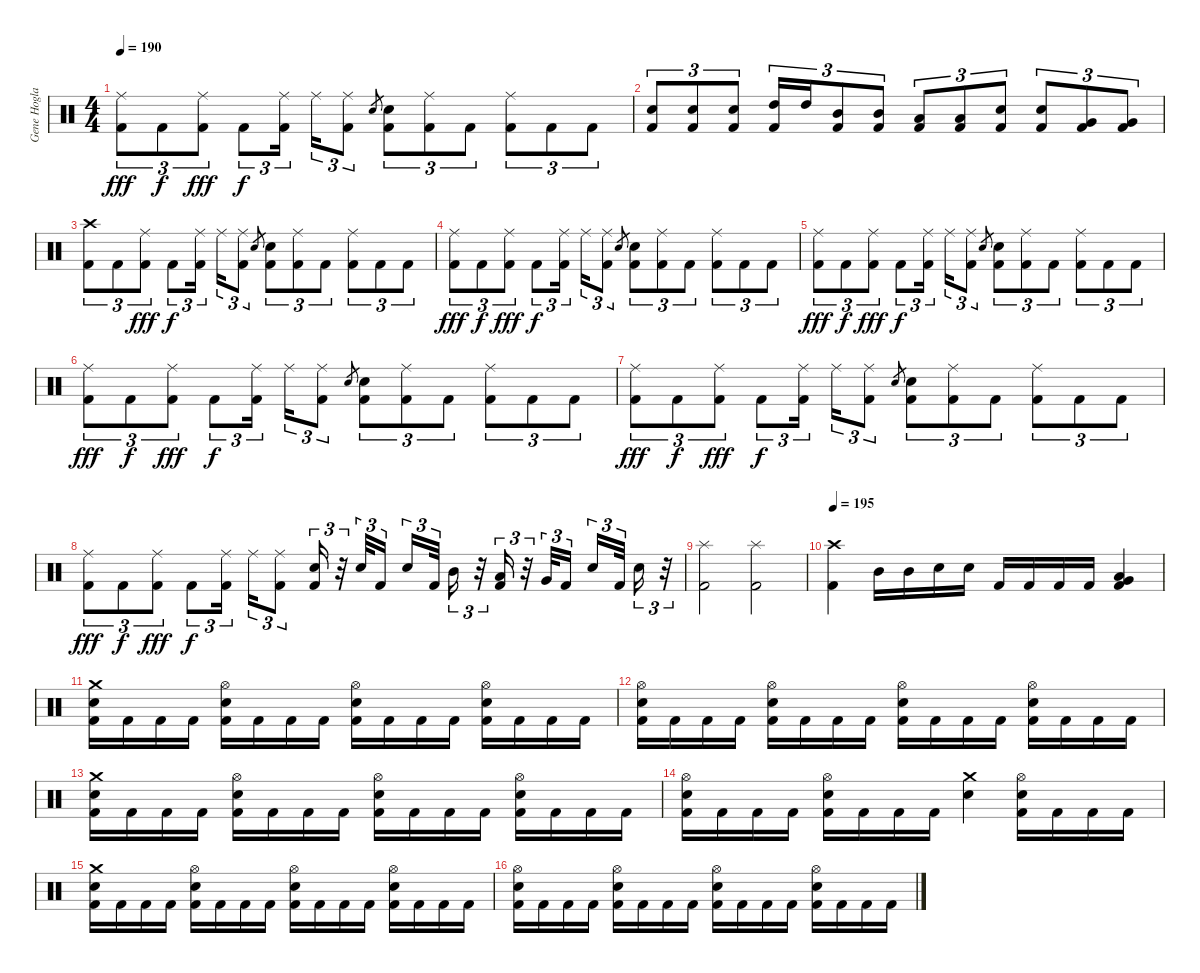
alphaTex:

\track ("Gene Hoglan" "Gene Hogla") {instrument percussion}
\staff {score}
\articulation defaults
\ts (4 4)
\tempo 190
\clef neutral
\ks c
("Ride (middle)" "Kick (hit) 2").8{tu (3 2) dy fff} "Kick (hit) 2".8{tu (3 2) dy f} ("Ride (middle)" "Kick (hit) 2").8{tu (3 2) dy fff} "Kick (hit) 2".8{tu (3 2) dy f} ("Ride (middle)" "Kick (hit) 2").16{tu (3 2)} "Ride (middle)".16{tu (3 2)} ("Ride (middle)" "Kick (hit) 2").8{tu (3 2)} "Electric Snare (hit)".8{gr} ("Electric Snare (hit)" "Kick (hit) 2").8{tu (3 2)} ("Ride (middle)" "Kick (hit) 2").8{tu (3 2)} "Kick (hit) 2".8{tu (3 2)} ("Ride (middle)" "Kick (hit) 2").8{tu (3 2)} "Kick (hit) 2".8{tu (3 2)} "Kick (hit) 2".8{tu (3 2)} |
("Electric Snare (hit)" "Kick (hit) 2").8{tu (3 2)} ("Electric Snare (hit)" "Kick (hit) 2").8{tu (3 2)} ("Electric Snare (hit)" "Kick (hit) 2").8{tu (3 2)} ("High Tom (hit)" "Kick (hit) 2").16{tu (3 2)} "High Tom (hit)".16{tu (3 2)} ("Mid Tom (hit)" "Kick (hit) 2").8{tu (3 2)} ("Mid Tom (hit)" "Kick (hit) 2").8{tu (3 2)} ("Low Tom (hit)" "Kick (hit) 2").8{tu (3 2)} ("Low Tom (hit)" "Kick (hit) 2").8{tu (3 2)} ("Electric Snare (hit)" "Kick (hit) 2").8{tu (3 2)} ("Electric Snare (hit)" "Kick (hit) 2").8{tu (3 2)} ("Very Low Tom (hit)" "Kick (hit) 2").8{tu (3 2)} ("Very Low Tom (hit)" "Kick (hit) 2").8{tu (3 2)} |
("Crash high (hit)" "Kick (hit) 2").8{tu (3 2)} "Kick (hit) 2".8{tu (3 2)} ("Ride (middle)" "Kick (hit) 2").8{tu (3 2) dy fff} "Kick (hit) 2".8{tu (3 2) dy f} ("Ride (middle)" "Kick (hit) 2").16{tu (3 2)} "Ride (middle)".16{tu (3 2)} ("Ride (middle)" "Kick (hit) 2").8{tu (3 2)} "Electric Snare (hit)".8{gr} ("Electric Snare (hit)" "Kick (hit) 2").8{tu (3 2)} ("Ride (middle)" "Kick (hit) 2").8{tu (3 2)} "Kick (hit) 2".8{tu (3 2)} ("Ride (middle)" "Kick (hit) 2").8{tu (3 2)} "Kick (hit) 2".8{tu (3 2)} "Kick (hit) 2".8{tu (3 2)} |
("Ride (middle)" "Kick (hit) 2").8{tu (3 2) dy fff} "Kick (hit) 2".8{tu (3 2) dy f} ("Ride (middle)" "Kick (hit) 2").8{tu (3 2) dy fff} "Kick (hit) 2".8{tu (3 2) dy f} ("Ride (middle)" "Kick (hit) 2").16{tu (3 2)} "Ride (middle)".16{tu (3 2)} ("Ride (middle)" "Kick (hit) 2").8{tu (3 2)} "Electric Snare (hit)".8{gr} ("Electric Snare (hit)" "Kick (hit) 2").8{tu (3 2)} ("Ride (middle)" "Kick (hit) 2").8{tu (3 2)} "Kick (hit) 2".8{tu (3 2)} ("Ride (middle)" "Kick (hit) 2").8{tu (3 2)} "Kick (hit) 2".8{tu (3 2)} "Kick (hit) 2".8{tu (3 2)} |
("Ride (middle)" "Kick (hit) 2").8{tu (3 2) dy fff} "Kick (hit) 2".8{tu (3 2) dy f} ("Ride (middle)" "Kick (hit) 2").8{tu (3 2) dy fff} "Kick (hit) 2".8{tu (3 2) dy f} ("Ride (middle)" "Kick (hit) 2").16{tu (3 2)} "Ride (middle)".16{tu (3 2)} ("Ride (middle)" "Kick (hit) 2").8{tu (3 2)} "Electric Snare (hit)".8{gr} ("Electric Snare (hit)" "Kick (hit) 2").8{tu (3 2)} ("Ride (middle)" "Kick (hit) 2").8{tu (3 2)} "Kick (hit) 2".8{tu (3 2)} ("Ride (middle)" "Kick (hit) 2").8{tu (3 2)} "Kick (hit) 2".8{tu (3 2)} "Kick (hit) 2".8{tu (3 2)} |
("Ride (middle)" "Kick (hit) 2").8{tu (3 2) dy fff} "Kick (hit) 2".8{tu (3 2) dy f} ("Ride (middle)" "Kick (hit) 2").8{tu (3 2) dy fff} "Kick (hit) 2".8{tu (3 2) dy f} ("Ride (middle)" "Kick (hit) 2").16{tu (3 2)} "Ride (middle)".16{tu (3 2)} ("Ride (middle)" "Kick (hit) 2").8{tu (3 2)} "Electric Snare (hit)".8{gr} ("Electric Snare (hit)" "Kick (hit) 2").8{tu (3 2)} ("Ride (middle)" "Kick (hit) 2").8{tu (3 2)} "Kick (hit) 2".8{tu (3 2)} ("Ride (middle)" "Kick (hit) 2").8{tu (3 2)} "Kick (hit) 2".8{tu (3 2)} "Kick (hit) 2".8{tu (3 2)} |
("Ride (middle)" "Kick (hit) 2").8{tu (3 2) dy fff} "Kick (hit) 2".8{tu (3 2) dy f} ("Ride (middle)" "Kick (hit) 2").8{tu (3 2) dy fff} "Kick (hit) 2".8{tu (3 2) dy f} ("Ride (middle)" "Kick (hit) 2").16{tu (3 2)} "Ride (middle)".16{tu (3 2)} ("Ride (middle)" "Kick (hit) 2").8{tu (3 2)} "Electric Snare (hit)".8{gr} ("Electric Snare (hit)" "Kick (hit) 2").8{tu (3 2)} ("Ride (middle)" "Kick (hit) 2").8{tu (3 2)} "Kick (hit) 2".8{tu (3 2)} ("Ride (middle)" "Kick (hit) 2").8{tu (3 2)} "Kick (hit) 2".8{tu (3 2)} "Kick (hit) 2".8{tu (3 2)} |
("Ride (middle)" "Kick (hit) 2").8{tu (3 2) dy fff} "Kick (hit) 2".8{tu (3 2) dy f} ("Ride (middle)" "Kick (hit) 2").8{tu (3 2) dy fff} "Kick (hit) 2".8{tu (3 2) dy f} ("Ride (middle)" "Kick (hit) 2").16{tu (3 2)} "Ride (middle)".16{tu (3 2)} ("Ride (middle)" "Kick (hit) 2").8{tu (3 2)} ("Electric Snare (hit)" "Kick (hit) 2").16{tu (3 2)} r.32{tu (3 2)} "Electric Snare (hit)".32{tu (3 2)} "Kick (hit) 2".16{tu (3 2)} "Electric Snare (hit)".16{tu (3 2)} "Kick (hit) 2".32{tu (3 2)} "Mid Tom (hit)".16{tu (3 2)} r.32{tu (3 2)} ("Low Tom (hit)" "Kick (hit) 2").16{tu (3 2)} r.32{tu (3 2)} "Very Low Tom (hit)".32{tu (3 2)} "Kick (hit) 2".16{tu (3 2)} "Electric Snare (hit)".16{tu (3 2)} "Kick (hit) 2".32{tu (3 2)} "Electric Snare (hit)".16{tu (3 2)} r.32{tu (3 2)} |
("Splash (hit)" "Kick (hit) 2").2 ("Splash (hit)" "Kick (hit) 2").2 |
\tempo 195
("Crash high (hit)" "Kick (hit) 2").4 "Mid Tom (hit)".16 "Mid Tom (hit)".16 "Electric Snare (hit)".16 "Electric Snare (hit)".16 "Kick (hit) 2".16 "Kick (hit) 2".16 "Kick (hit) 2".16 "Kick (hit) 2".16 ("Low Tom (hit)" "Very Low Tom (hit)" "Kick (hit) 2").4 |
("Crash medium (hit)" "Electric Snare (hit)" "Kick (hit) 2").16 "Kick (hit) 2".16 "Kick (hit) 2".16 "Kick (hit) 2".16 ("Hi-Hat (open)" "Electric Snare (hit)" "Kick (hit) 2").16 "Kick (hit) 2".16 "Kick (hit) 2".16 "Kick (hit) 2".16 ("Hi-Hat (open)" "Electric Snare (hit)" "Kick (hit) 2").16 "Kick (hit) 2".16 "Kick (hit) 2".16 "Kick (hit) 2".16 ("Hi-Hat (open)" "Electric Snare (hit)" "Kick (hit) 2").16 "Kick (hit) 2".16 "Kick (hit) 2".16 "Kick (hit) 2".16 |
("Hi-Hat (open)" "Electric Snare (hit)" "Kick (hit) 2").16 "Kick (hit) 2".16 "Kick (hit) 2".16 "Kick (hit) 2".16 ("Hi-Hat (open)" "Electric Snare (hit)" "Kick (hit) 2").16 "Kick (hit) 2".16 "Kick (hit) 2".16 "Kick (hit) 2".16 ("Hi-Hat (open)" "Electric Snare (hit)" "Kick (hit) 2").16 "Kick (hit) 2".16 "Kick (hit) 2".16 "Kick (hit) 2".16 ("Hi-Hat (open)" "Electric Snare (hit)" "Kick (hit) 2").16 "Kick (hit) 2".16 "Kick (hit) 2".16 "Kick (hit) 2".16 |
("Crash medium (hit)" "Electric Snare (hit)" "Kick (hit) 2").16 "Kick (hit) 2".16 "Kick (hit) 2".16 "Kick (hit) 2".16 ("Hi-Hat (open)" "Electric Snare (hit)" "Kick (hit) 2").16 "Kick (hit) 2".16 "Kick (hit) 2".16 "Kick (hit) 2".16 ("Hi-Hat (open)" "Electric Snare (hit)" "Kick (hit) 2").16 "Kick (hit) 2".16 "Kick (hit) 2".16 "Kick (hit) 2".16 ("Hi-Hat (open)" "Electric Snare (hit)" "Kick (hit) 2").16 "Kick (hit) 2".16 "Kick (hit) 2".16 "Kick (hit) 2".16 |
("Hi-Hat (open)" "Electric Snare (hit)" "Kick (hit) 2").16 "Kick (hit) 2".16 "Kick (hit) 2".16 "Kick (hit) 2".16 ("Hi-Hat (open)" "Electric Snare (hit)" "Kick (hit) 2").16 "Kick (hit) 2".16 "Kick (hit) 2".16 "Kick (hit) 2".16 ("Crash medium (hit)" "Electric Snare (hit)").4 ("Hi-Hat (open)" "Electric Snare (hit)" "Kick (hit) 2").16 "Kick (hit) 2".16 "Kick (hit) 2".16 "Kick (hit) 2".16 |
("Crash medium (hit)" "Electric Snare (hit)" "Kick (hit) 2").16 "Kick (hit) 2".16 "Kick (hit) 2".16 "Kick (hit) 2".16 ("Hi-Hat (open)" "Electric Snare (hit)" "Kick (hit) 2").16 "Kick (hit) 2".16 "Kick (hit) 2".16 "Kick (hit) 2".16 ("Hi-Hat (open)" "Electric Snare (hit)" "Kick (hit) 2").16 "Kick (hit) 2".16 "Kick (hit) 2".16 "Kick (hit) 2".16 ("Hi-Hat (open)" "Electric Snare (hit)" "Kick (hit) 2").16 "Kick (hit) 2".16 "Kick (hit) 2".16 "Kick (hit) 2".16 |
("Hi-Hat (open)" "Electric Snare (hit)" "Kick (hit) 2").16 "Kick (hit) 2".16 "Kick (hit) 2".16 "Kick (hit) 2".16 ("Hi-Hat (open)" "Electric Snare (hit)" "Kick (hit) 2").16 "Kick (hit) 2".16 "Kick (hit) 2".16 "Kick (hit) 2".16 ("Hi-Hat (open)" "Electric Snare (hit)" "Kick (hit) 2").16 "Kick (hit) 2".16 "Kick (hit) 2".16 "Kick (hit) 2".16 ("Hi-Hat (open)" "Electric Snare (hit)" "Kick (hit) 2").16 "Kick (hit) 2".16 "Kick (hit) 2".16 "Kick (hit) 2".16
